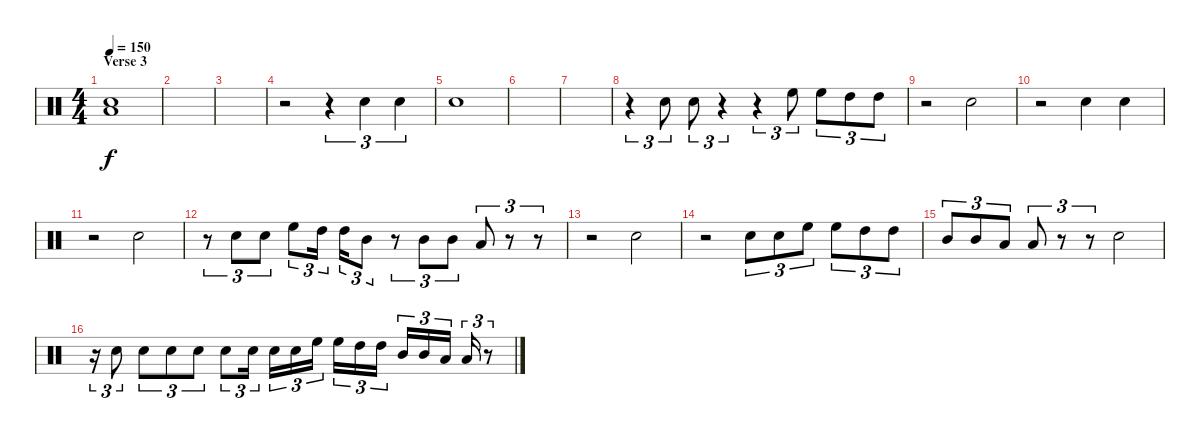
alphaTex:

\track "" {instrument percussion}
\staff {score}
\articulation defaults
\ts (4 4)
\section ("" "Verse 3")
\tempo 150
\clef neutral
\ks c
("Low Tom (hit)" "Electric Snare (hit)").1{dy f} |
|
|
r.2 r.4{tu (3 2)} "Electric Snare (hit)".4{tu (3 2)} "Electric Snare (hit)".4{tu (3 2)} |
"Electric Snare (hit)".1 |
|
|
r.4{tu (3 2)} "Electric Snare (hit)".8{tu (3 2)} "Electric Snare (hit)".8{tu (3 2)} r.4{tu (3 2)} r.4{tu (3 2)} "High Floor Tom (hit)".8{tu (3 2)} "High Floor Tom (hit)".8{tu (3 2)} "High Tom (hit)".8{tu (3 2)} "High Tom (hit)".8{tu (3 2)} |
r.2 "Electric Snare (hit)".2 |
r.2 "Electric Snare (hit)".4 "Electric Snare (hit)".4 |
r.2 "Electric Snare (hit)".2 |
r.8{tu (3 2)} "Electric Snare (hit)".8{tu (3 2)} "Electric Snare (hit)".8{tu (3 2)} "High Floor Tom (hit)".8{tu (3 2)} "High Tom (hit)".16{tu (3 2)} "High Tom (hit)".16{tu (3 2)} "Mid Tom (hit)".8{tu (3 2)} r.8{tu (3 2)} "Mid Tom (hit)".8{tu (3 2)} "Mid Tom (hit)".8{tu (3 2)} "Low Tom (hit)".8{tu (3 2)} r.8{tu (3 2)} r.8{tu (3 2)} |
r.2 "Electric Snare (hit)".2 |
r.2 "Electric Snare (hit)".8{tu (3 2)} "Electric Snare (hit)".8{tu (3 2)} "High Floor Tom (hit)".8{tu (3 2)} "High Floor Tom (hit)".8{tu (3 2)} "High Tom (hit)".8{tu (3 2)} "High Tom (hit)".8{tu (3 2)} |
"Mid Tom (hit)".8{tu (3 2)} "Mid Tom (hit)".8{tu (3 2)} "Low Tom (hit)".8{tu (3 2)} "Low Tom (hit)".8{tu (3 2)} r.8{tu (3 2)} r.8{tu (3 2)} "Electric Snare (hit)".2 |
r.16{tu (3 2)} "Electric Snare (hit)".8{tu (3 2)} "Electric Snare (hit)".8{tu (3 2)} "Electric Snare (hit)".8{tu (3 2)} "Electric Snare (hit)".8{tu (3 2)} "Electric Snare (hit)".8{tu (3 2)} "Electric Snare (hit)".16{tu (3 2)} "Electric Snare (hit)".16{tu (3 2)} "Electric Snare (hit)".16{tu (3 2)} "High Floor Tom (hit)".16{tu (3 2)} "High Floor Tom (hit)".16{tu (3 2)} "High Tom (hit)".16{tu (3 2)} "High Tom (hit)".16{tu (3 2)} "Mid Tom (hit)".16{tu (3 2)} "Mid Tom (hit)".16{tu (3 2)} "Low Tom (hit)".16{tu (3 2)} "Low Tom (hit)".16{tu (3 2)} r.8{tu (3 2)}
